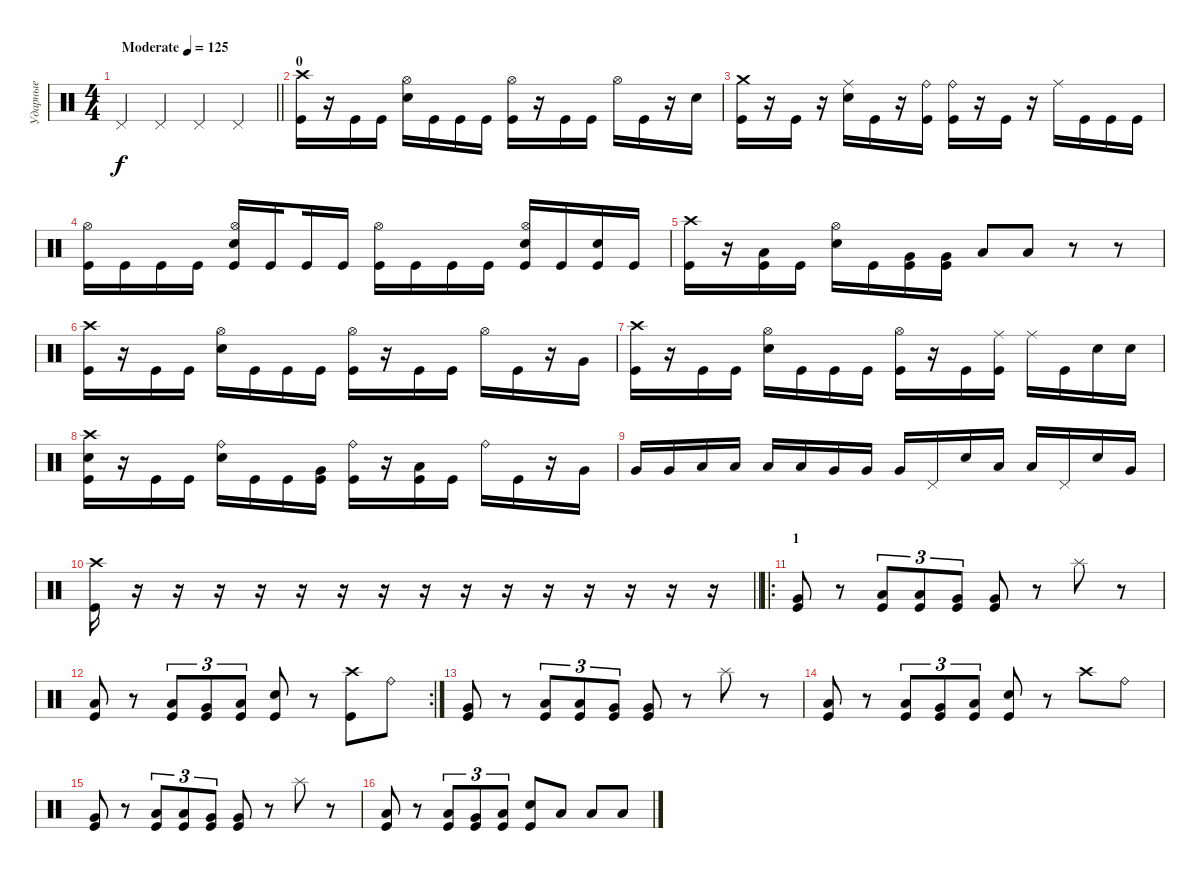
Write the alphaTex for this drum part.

\track ("Ударные" "Ударные") {instrument percussion}
\staff {score}
\articulation defaults
\ts (4 4)
\tempo (125 "Moderate")
\clef neutral
\barLineRight lightlight
\ks c "Pedal Hi-Hat (hit)".4{dy f} "Pedal Hi-Hat (hit)".4 "Pedal Hi-Hat (hit)".4 "Pedal Hi-Hat (hit)".4
|
\section ("" "0")
("Crash high (hit)" "Kick (hit)").16 r.16 "Kick (hit)".16 "Kick (hit)".16 ("Hi-Hat (open)" "Electric Snare (hit)").16 "Kick (hit)".16 "Kick (hit)".16 "Kick (hit)".16 ("Hi-Hat (open)" "Kick (hit)").16 r.16 "Kick (hit)".16 "Kick (hit)".16 "Hi-Hat (open)".16 "Kick (hit)".16 r.16 "Electric Snare (hit)".16 |
("Crash medium (hit)" "Kick (hit)").16 r.16 "Kick (hit)".16 r.16 ("Ride (middle)" "Electric Snare (hit)").16 "Kick (hit)".16 r.16 ("Ride (bell)" "Kick (hit)").16 ("Ride (bell)" "Kick (hit)").16 r.16 "Kick (hit)".16 r.16 "Ride (middle)".16 "Kick (hit)".16 "Kick (hit)".16 "Kick (hit)".16 |
("Hi-Hat (open)" "Kick (hit)").16 "Kick (hit)".16 "Kick (hit)".16 "Kick (hit)".16 ("Hi-Hat (open)" "Electric Snare (hit)" "Kick (hit)").16 "Kick (hit)".16{beam splitsecondary} "Kick (hit)".16 "Kick (hit)".16 ("Hi-Hat (open)" "Kick (hit)").16 "Kick (hit)".16 "Kick (hit)".16 "Kick (hit)".16 ("Hi-Hat (open)" "Electric Snare (hit)" "Kick (hit)").16 "Kick (hit)".16 ("Electric Snare (hit)" "Kick (hit)").16 "Kick (hit)".16 |
("Crash high (hit)" "Kick (hit)").16 r.16 ("Low Tom (hit)" "Kick (hit)").16 "Kick (hit)".16 ("Hi-Hat (open)" "Electric Snare (hit)").16 "Kick (hit)".16 ("Very Low Tom (hit)" "Kick (hit)").16 ("Very Low Tom (hit)" "Kick (hit)").16 "Low Floor Tom (hit)".8 "Low Floor Tom (hit)".8 r.8 r.8 |
("Crash high (hit)" "Kick (hit)").16 r.16 "Kick (hit)".16 "Kick (hit)".16 ("Hi-Hat (open)" "Electric Snare (hit)").16 "Kick (hit)".16 "Kick (hit)".16 "Kick (hit)".16 ("Hi-Hat (open)" "Kick (hit)").16 r.16 "Kick (hit)".16 "Kick (hit)".16 "Hi-Hat (open)".16 "Kick (hit)".16 r.16 "Very Low Tom (hit)".16 |
("Crash high (hit)" "Kick (hit)").16 r.16 "Kick (hit)".16 "Kick (hit)".16 ("Hi-Hat (open)" "Electric Snare (hit)").16 "Kick (hit)".16 "Kick (hit)".16 "Kick (hit)".16 ("Hi-Hat (open)" "Kick (hit)").16 r.16 "Kick (hit)".16 ("Ride (middle)" "Kick (hit)").16 "Ride (middle)".16 "Kick (hit)".16 "Electric Snare (hit)".16 "Electric Snare (hit)".16 |
("Crash high (hit)" "Electric Snare (hit)" "Kick (hit)").16 r.16 "Kick (hit)".16 "Kick (hit)".16 ("Ride (bell)" "Electric Snare (hit)").16 "Kick (hit)".16 "Kick (hit)".16 ("Very Low Tom (hit)" "Kick (hit)").16 ("Ride (bell)" "Kick (hit)").16 r.16 ("Low Tom (hit)" "Kick (hit)").16 "Kick (hit)".16 "Ride (bell)".16 "Kick (hit)".16 r.16 "Very Low Tom (hit)".16 |
"Very Low Tom (hit)".16 "Very Low Tom (hit)".16 "Low Floor Tom (hit)".16 "Low Floor Tom (hit)".16 "Low Tom (hit)".16 "Low Tom (hit)".16 "Very Low Tom (hit)".16 "Very Low Tom (hit)".16 "Very Low Tom (hit)".16 "Pedal Hi-Hat (hit)".16 "Electric Snare (hit)".16 "Low Floor Tom (hit)".16 "Low Tom (hit)".16 "Pedal Hi-Hat (hit)".16 "Electric Snare (hit)".16 "Very Low Tom (hit)".16 |
\barLineRight lightlight
("Crash high (hit)" "Kick (hit)").16 r.16 r.16 r.16 r.16 r.16 r.16 r.16 r.16 r.16 r.16 r.16 r.16 r.16 r.16 r.16 |
\ro
\section ("" "1")
("Very Low Tom (hit)" "Kick (hit)").8 r.8 ("Low Tom (hit)" "Kick (hit)").8{tu (3 2)} ("Low Tom (hit)" "Kick (hit)").8{tu (3 2)} ("Very Low Tom (hit)" "Kick (hit)").8{tu (3 2)} ("Very Low Tom (hit)" "Kick (hit)").8 r.8 "Splash (hit)".8 r.8 |
\rc 2
("Low Tom (hit)" "Kick (hit)").8 r.8 ("Low Tom (hit)" "Kick (hit)").8{tu (3 2)} ("Very Low Tom (hit)" "Kick (hit)").8{tu (3 2)} ("Low Floor Tom (hit)" "Kick (hit)").8{tu (3 2)} ("Electric Snare (hit)" "Kick (hit)").8 r.8 ("Crash high (hit)" "Kick (hit)").8 "Ride (bell)".8 |
("Very Low Tom (hit)" "Kick (hit)").8 r.8 ("Low Tom (hit)" "Kick (hit)").8{tu (3 2)} ("Low Tom (hit)" "Kick (hit)").8{tu (3 2)} ("Very Low Tom (hit)" "Kick (hit)").8{tu (3 2)} ("Very Low Tom (hit)" "Kick (hit)").8 r.8 "Splash (hit)".8 r.8 |
("Low Tom (hit)" "Kick (hit)").8 r.8 ("Low Tom (hit)" "Kick (hit)").8{tu (3 2)} ("Very Low Tom (hit)" "Kick (hit)").8{tu (3 2)} ("Low Floor Tom (hit)" "Kick (hit)").8{tu (3 2)} ("Electric Snare (hit)" "Kick (hit)").8 r.8 "Crash high (hit)".8 "Ride (bell)".8 |
("Very Low Tom (hit)" "Kick (hit)").8 r.8 ("Low Tom (hit)" "Kick (hit)").8{tu (3 2)} ("Low Tom (hit)" "Kick (hit)").8{tu (3 2)} ("Very Low Tom (hit)" "Kick (hit)").8{tu (3 2)} ("Very Low Tom (hit)" "Kick (hit)").8 r.8 "Splash (hit)".8 r.8 |
("Low Tom (hit)" "Kick (hit)").8 r.8 ("Low Tom (hit)" "Kick (hit)").8{tu (3 2)} ("Very Low Tom (hit)" "Kick (hit)").8{tu (3 2)} ("Low Floor Tom (hit)" "Kick (hit)").8{tu (3 2)} ("Electric Snare (hit)" "Kick (hit)").8 "Low Tom (hit)".8 "Low Tom (hit)".8 "Low Tom (hit)".8
